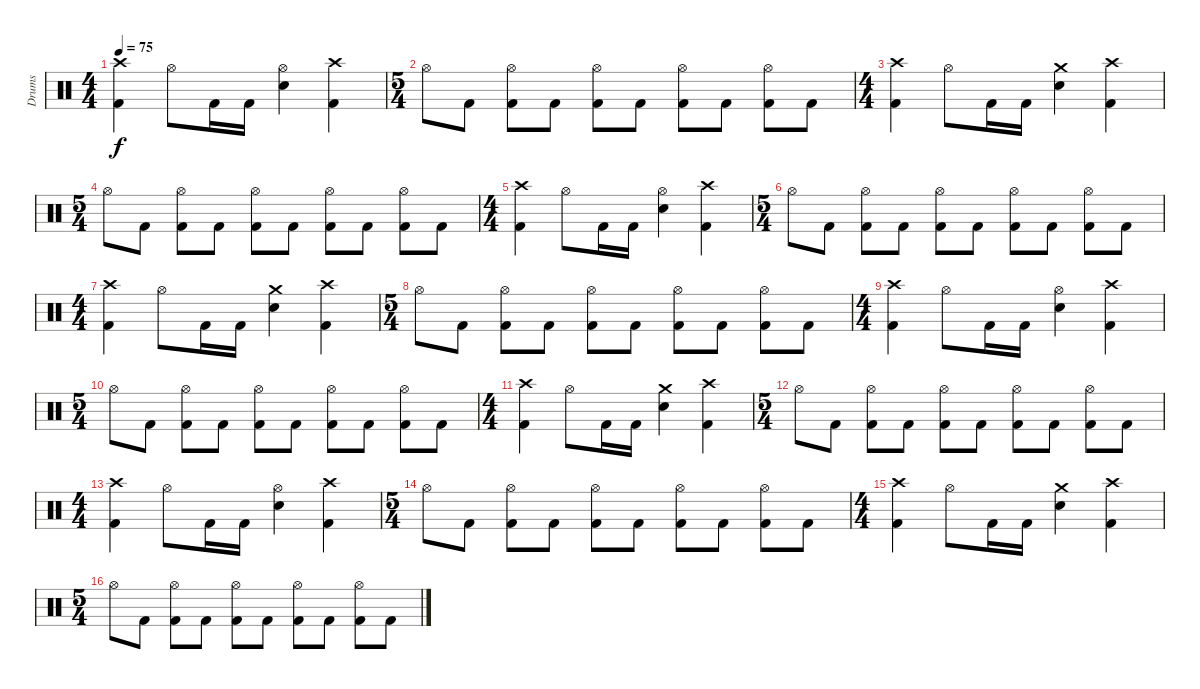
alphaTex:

\track ("Drums" "Drums") {instrument percussion}
\staff {score}
\articulation defaults
\ts (4 4)
\tempo 75
\clef neutral
\ks c
("Crash high (hit)" "Kick (hit) 2").4{dy f} "Hi-Hat (open)".8 "Kick (hit) 2".16 "Kick (hit) 2".16 ("Hi-Hat (open)" "Electric Snare (hit)").4 ("Crash high (hit)" "Kick (hit) 2").4 |
\ts (5 4)
"Hi-Hat (open)".8 "Kick (hit) 2".8 ("Hi-Hat (open)" "Kick (hit) 2").8 "Kick (hit) 2".8 ("Hi-Hat (open)" "Kick (hit) 2").8 "Kick (hit) 2".8 ("Hi-Hat (open)" "Kick (hit) 2").8 "Kick (hit) 2".8 ("Hi-Hat (open)" "Kick (hit) 2").8 "Kick (hit) 2".8 |
\ts (4 4)
("Crash high (hit)" "Kick (hit) 2").4 "Hi-Hat (open)".8 "Kick (hit) 2".16 "Kick (hit) 2".16 ("Crash medium (hit)" "Electric Snare (hit)").4 ("Crash high (hit)" "Kick (hit) 2").4 |
\ts (5 4)
"Hi-Hat (open)".8 "Kick (hit) 2".8 ("Hi-Hat (open)" "Kick (hit) 2").8 "Kick (hit) 2".8 ("Hi-Hat (open)" "Kick (hit) 2").8 "Kick (hit) 2".8 ("Hi-Hat (open)" "Kick (hit) 2").8 "Kick (hit) 2".8 ("Hi-Hat (open)" "Kick (hit) 2").8 "Kick (hit) 2".8 |
\ts (4 4)
("Crash high (hit)" "Kick (hit) 2").4 "Hi-Hat (open)".8 "Kick (hit) 2".16 "Kick (hit) 2".16 ("Hi-Hat (open)" "Electric Snare (hit)").4 ("Crash high (hit)" "Kick (hit) 2").4 |
\ts (5 4)
"Hi-Hat (open)".8 "Kick (hit) 2".8 ("Hi-Hat (open)" "Kick (hit) 2").8 "Kick (hit) 2".8 ("Hi-Hat (open)" "Kick (hit) 2").8 "Kick (hit) 2".8 ("Hi-Hat (open)" "Kick (hit) 2").8 "Kick (hit) 2".8 ("Hi-Hat (open)" "Kick (hit) 2").8 "Kick (hit) 2".8 |
\ts (4 4)
("Crash high (hit)" "Kick (hit) 2").4 "Hi-Hat (open)".8 "Kick (hit) 2".16 "Kick (hit) 2".16 ("Crash medium (hit)" "Electric Snare (hit)").4 ("Crash high (hit)" "Kick (hit) 2").4 |
\ts (5 4)
"Hi-Hat (open)".8 "Kick (hit) 2".8 ("Hi-Hat (open)" "Kick (hit) 2").8 "Kick (hit) 2".8 ("Hi-Hat (open)" "Kick (hit) 2").8 "Kick (hit) 2".8 ("Hi-Hat (open)" "Kick (hit) 2").8 "Kick (hit) 2".8 ("Hi-Hat (open)" "Kick (hit) 2").8 "Kick (hit) 2".8 |
\ts (4 4)
("Crash high (hit)" "Kick (hit) 2").4 "Hi-Hat (open)".8 "Kick (hit) 2".16 "Kick (hit) 2".16 ("Hi-Hat (open)" "Electric Snare (hit)").4 ("Crash high (hit)" "Kick (hit) 2").4 |
\ts (5 4)
"Hi-Hat (open)".8 "Kick (hit) 2".8 ("Hi-Hat (open)" "Kick (hit) 2").8 "Kick (hit) 2".8 ("Hi-Hat (open)" "Kick (hit) 2").8 "Kick (hit) 2".8 ("Hi-Hat (open)" "Kick (hit) 2").8 "Kick (hit) 2".8 ("Hi-Hat (open)" "Kick (hit) 2").8 "Kick (hit) 2".8 |
\ts (4 4)
("Crash high (hit)" "Kick (hit) 2").4 "Hi-Hat (open)".8 "Kick (hit) 2".16 "Kick (hit) 2".16 ("Crash medium (hit)" "Electric Snare (hit)").4 ("Crash high (hit)" "Kick (hit) 2").4 |
\ts (5 4)
"Hi-Hat (open)".8 "Kick (hit) 2".8 ("Hi-Hat (open)" "Kick (hit) 2").8 "Kick (hit) 2".8 ("Hi-Hat (open)" "Kick (hit) 2").8 "Kick (hit) 2".8 ("Hi-Hat (open)" "Kick (hit) 2").8 "Kick (hit) 2".8 ("Hi-Hat (open)" "Kick (hit) 2").8 "Kick (hit) 2".8 |
\ts (4 4)
("Crash high (hit)" "Kick (hit) 2").4 "Hi-Hat (open)".8 "Kick (hit) 2".16 "Kick (hit) 2".16 ("Hi-Hat (open)" "Electric Snare (hit)").4 ("Crash high (hit)" "Kick (hit) 2").4 |
\ts (5 4)
"Hi-Hat (open)".8 "Kick (hit) 2".8 ("Hi-Hat (open)" "Kick (hit) 2").8 "Kick (hit) 2".8 ("Hi-Hat (open)" "Kick (hit) 2").8 "Kick (hit) 2".8 ("Hi-Hat (open)" "Kick (hit) 2").8 "Kick (hit) 2".8 ("Hi-Hat (open)" "Kick (hit) 2").8 "Kick (hit) 2".8 |
\ts (4 4)
("Crash high (hit)" "Kick (hit) 2").4 "Hi-Hat (open)".8 "Kick (hit) 2".16 "Kick (hit) 2".16 ("Crash medium (hit)" "Electric Snare (hit)").4 ("Crash high (hit)" "Kick (hit) 2").4 |
\ts (5 4)
"Hi-Hat (open)".8 "Kick (hit) 2".8 ("Hi-Hat (open)" "Kick (hit) 2").8 "Kick (hit) 2".8 ("Hi-Hat (open)" "Kick (hit) 2").8 "Kick (hit) 2".8 ("Hi-Hat (open)" "Kick (hit) 2").8 "Kick (hit) 2".8 ("Hi-Hat (open)" "Kick (hit) 2").8 "Kick (hit) 2".8
